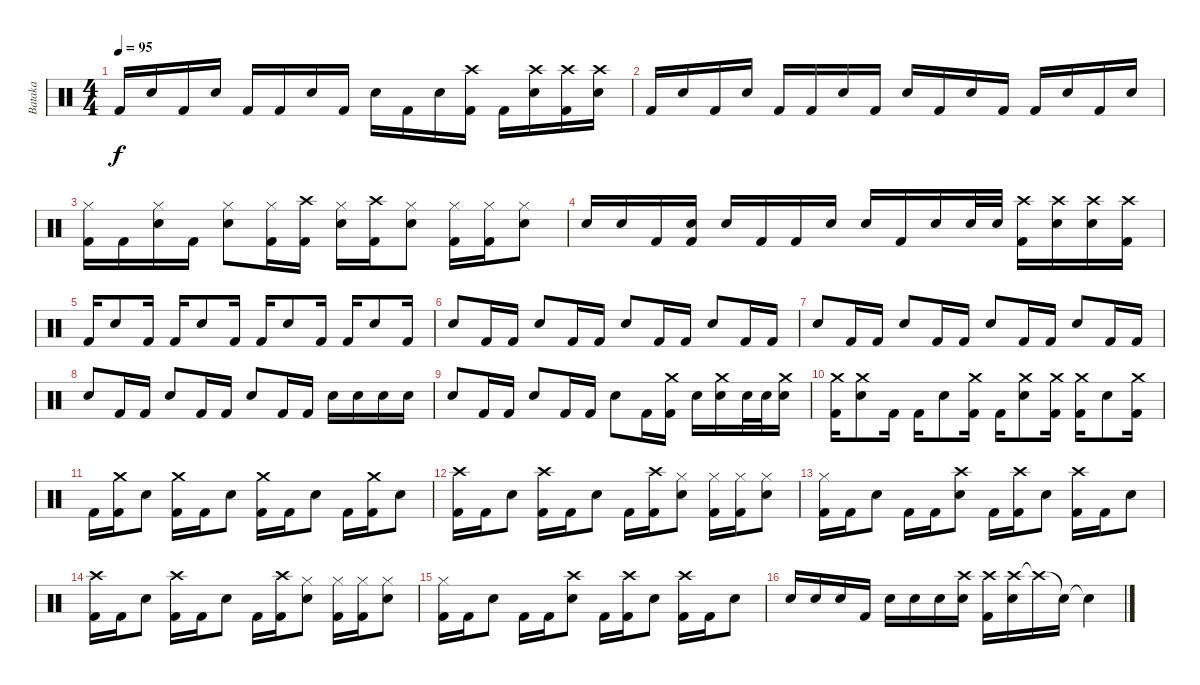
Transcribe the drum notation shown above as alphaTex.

\track ("Bataka" "Bataka") {instrument percussion}
\staff {score}
\articulation defaults
\ts (4 4)
\tempo 95
\clef neutral
\ks c "Kick (hit) 2".16{dy f} "Electric Snare (hit)".16 "Kick (hit) 2".16 "Electric Snare (hit)".16 "Kick (hit) 2".16 "Kick (hit) 2".16 "Electric Snare (hit)".16 "Kick (hit) 2".16 "Electric Snare (hit)".16 "Kick (hit) 2".16 "Electric Snare (hit)".16
("Crash high (hit)" "Kick (hit) 2").16 "Kick (hit) 2".16 ("Crash high (hit)" "Electric Snare (hit)").16 ("Crash high (hit)" "Kick (hit) 2").16 ("Crash high (hit)" "Electric Snare (hit)").16 |
"Kick (hit) 2".16 "Electric Snare (hit)".16 "Kick (hit) 2".16 "Electric Snare (hit)".16 "Kick (hit) 2".16 "Kick (hit) 2".16 "Electric Snare (hit)".16 "Kick (hit) 2".16 "Electric Snare (hit)".16 "Kick (hit) 2".16 "Electric Snare (hit)".16 "Kick (hit) 2".16 "Kick (hit) 2".16 "Electric Snare (hit)".16 "Kick (hit) 2".16 "Electric Snare (hit)".16 |
("Hi-Hat (closed)" "Kick (hit) 2").16 "Kick (hit) 2".16 ("Hi-Hat (closed)" "Electric Snare (hit)").16 "Kick (hit) 2".16 ("Hi-Hat (closed)" "Electric Snare (hit)").8 ("Hi-Hat (closed)" "Kick (hit) 2").16 ("Crash high (hit)" "Kick (hit) 2").16 ("Hi-Hat (closed)" "Electric Snare (hit)").16 ("Crash high (hit)" "Kick (hit) 2").16 ("Hi-Hat (closed)" "Electric Snare (hit)").8 ("Hi-Hat (closed)" "Kick (hit) 2").16 ("Hi-Hat (closed)" "Kick (hit) 2").16 ("Hi-Hat (closed)" "Electric Snare (hit)").8 |
"Electric Snare (hit)".16 "Electric Snare (hit)".16 "Kick (hit) 2".16 ("Kick (hit) 2" "Electric Snare (hit)").16 "Electric Snare (hit)".16 "Kick (hit) 2".16 "Kick (hit) 2".16 "Electric Snare (hit)".16 "Electric Snare (hit)".16 "Kick (hit) 2".16 "Electric Snare (hit)".16 "Electric Snare (hit)".32 "Electric Snare (hit)".32 ("Crash high (hit)" "Kick (hit) 2").16 ("Crash high (hit)" "Electric Snare (hit)").16 ("Crash high (hit)" "Electric Snare (hit)").16 ("Crash high (hit)" "Kick (hit) 2").16 |
"Kick (hit) 2".16 "Electric Snare (hit)".8 "Kick (hit) 2".16 "Kick (hit) 2".16 "Electric Snare (hit)".8 "Kick (hit) 2".16 "Kick (hit) 2".16 "Electric Snare (hit)".8 "Kick (hit) 2".16 "Kick (hit) 2".16 "Electric Snare (hit)".8 "Kick (hit) 2".16 |
"Electric Snare (hit)".8 "Kick (hit) 2".16 "Kick (hit) 2".16 "Electric Snare (hit)".8 "Kick (hit) 2".16 "Kick (hit) 2".16 "Electric Snare (hit)".8 "Kick (hit) 2".16 "Kick (hit) 2".16 "Electric Snare (hit)".8 "Kick (hit) 2".16 "Kick (hit) 2".16 |
"Electric Snare (hit)".8 "Kick (hit) 2".16 "Kick (hit) 2".16 "Electric Snare (hit)".8 "Kick (hit) 2".16 "Kick (hit) 2".16 "Electric Snare (hit)".8 "Kick (hit) 2".16 "Kick (hit) 2".16 "Electric Snare (hit)".8 "Kick (hit) 2".16 "Kick (hit) 2".16 |
"Electric Snare (hit)".8 "Kick (hit) 2".16 "Kick (hit) 2".16 "Electric Snare (hit)".8 "Kick (hit) 2".16 "Kick (hit) 2".16 "Electric Snare (hit)".8 "Kick (hit) 2".16 "Kick (hit) 2".16 "Electric Snare (hit)".16 "Electric Snare (hit)".16 "Electric Snare (hit)".16 "Electric Snare (hit)".16 |
"Electric Snare (hit)".8 "Kick (hit) 2".16 "Kick (hit) 2".16 "Electric Snare (hit)".8 "Kick (hit) 2".16 "Kick (hit) 2".16 "Electric Snare (hit)".8 "Kick (hit) 2".16 ("Crash medium (hit)" "Kick (hit) 2").16 "Electric Snare (hit)".16 ("Crash medium (hit)" "Electric Snare (hit)").16 "Electric Snare (hit)".32 "Electric Snare (hit)".32 ("Crash medium (hit)" "Electric Snare (hit)").16 |
("Crash medium (hit)" "Kick (hit) 2").16 ("Crash medium (hit)" "Electric Snare (hit)").8 "Kick (hit) 2".16 "Kick (hit) 2".16 "Electric Snare (hit)".8 ("Crash medium (hit)" "Kick (hit) 2").16 "Kick (hit) 2".16 ("Crash medium (hit)" "Electric Snare (hit)").8 ("Crash medium (hit)" "Kick (hit) 2").16 ("Crash medium (hit)" "Kick (hit) 2").16 "Electric Snare (hit)".8 ("Crash medium (hit)" "Kick (hit) 2").16 |
"Kick (hit) 2".16 ("Crash medium (hit)" "Kick (hit) 2").16 "Electric Snare (hit)".8 ("Crash medium (hit)" "Kick (hit) 2").16 "Kick (hit) 2".16 "Electric Snare (hit)".8 ("Crash medium (hit)" "Kick (hit) 2").16 "Kick (hit) 2".16 "Electric Snare (hit)".8 "Kick (hit) 2".16 ("Crash medium (hit)" "Kick (hit) 2").16 "Electric Snare (hit)".8 |
("Crash high (hit)" "Kick (hit) 2").16 "Kick (hit) 2".16 "Electric Snare (hit)".8 ("Crash high (hit)" "Kick (hit) 2").16 "Kick (hit) 2".16 "Electric Snare (hit)".8 "Kick (hit) 2".16 ("Crash high (hit)" "Kick (hit) 2").16 ("Hi-Hat (closed)" "Electric Snare (hit)").8 ("Hi-Hat (closed)" "Kick (hit) 2").16 ("Hi-Hat (closed)" "Kick (hit) 2").16 ("Hi-Hat (closed)" "Electric Snare (hit)").8 |
("Hi-Hat (closed)" "Kick (hit) 2").16 "Kick (hit) 2".16 "Electric Snare (hit)".8 "Kick (hit) 2".16 "Kick (hit) 2".16 ("Crash high (hit)" "Electric Snare (hit)").8 "Kick (hit) 2".16 ("Crash high (hit)" "Kick (hit) 2").16 "Electric Snare (hit)".8 ("Crash high (hit)" "Kick (hit) 2").16 "Kick (hit) 2".16 "Electric Snare (hit)".8 |
("Crash high (hit)" "Kick (hit) 2").16 "Kick (hit) 2".16 "Electric Snare (hit)".8 ("Crash high (hit)" "Kick (hit) 2").16 "Kick (hit) 2".16 "Electric Snare (hit)".8 "Kick (hit) 2".16 ("Crash high (hit)" "Kick (hit) 2").16 ("Hi-Hat (closed)" "Electric Snare (hit)").8 ("Hi-Hat (closed)" "Kick (hit) 2").16 ("Hi-Hat (closed)" "Kick (hit) 2").16 ("Hi-Hat (closed)" "Electric Snare (hit)").8 |
("Hi-Hat (closed)" "Kick (hit) 2").16 "Kick (hit) 2".16 "Electric Snare (hit)".8 "Kick (hit) 2".16 "Kick (hit) 2".16 ("Crash high (hit)" "Electric Snare (hit)").8 "Kick (hit) 2".16 ("Crash high (hit)" "Kick (hit) 2").16 "Electric Snare (hit)".8 ("Crash high (hit)" "Kick (hit) 2").16 "Kick (hit) 2".16 "Electric Snare (hit)".8 |
"Electric Snare (hit)".16 "Electric Snare (hit)".16 "Electric Snare (hit)".16 "Kick (hit) 2".16 "Electric Snare (hit)".16 "Electric Snare (hit)".16 "Electric Snare (hit)".16 ("Crash high (hit)" "Electric Snare (hit)").16 ("Crash high (hit)" "Kick (hit) 2").16 ("Crash high (hit)" "Electric Snare (hit)").16 "Crash high (hit)"{t}.16 "Snare (hit)"{t}.16 "Snare (hit)"{t}.4
